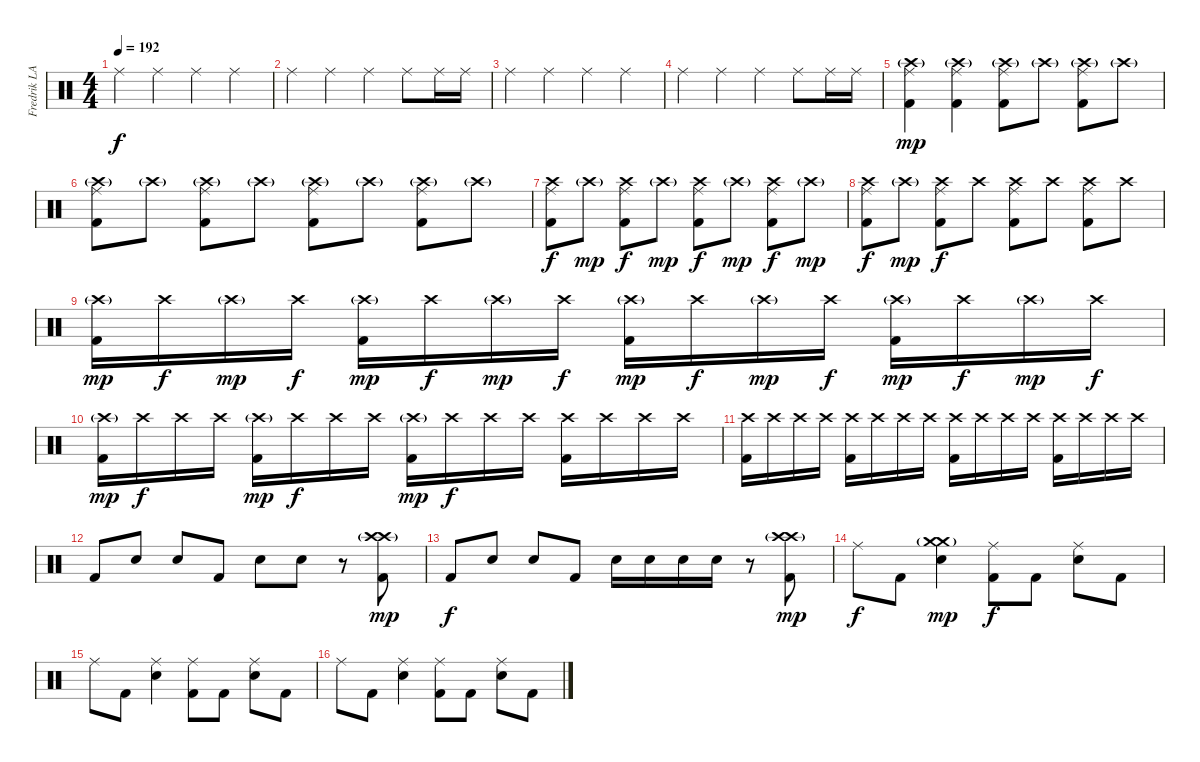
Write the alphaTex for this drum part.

\track ("Fredrik LARZON" "Fredrik LA") {instrument percussion}
\staff {score}
\articulation defaults
\ts (4 4)
\tempo 192
\clef neutral
\ks c "Ride (middle)".4{dy f} "Ride (middle)".4 "Ride (middle)".4 "Ride (middle)".4
|
"Ride (middle)".4 "Ride (middle)".4 "Ride (middle)".4 "Ride (middle)".8 "Ride (middle)".16 "Ride (middle)".16 |
"Ride (middle)".4 "Ride (middle)".4 "Ride (middle)".4 "Ride (middle)".4 |
"Ride (middle)".4 "Ride (middle)".4 "Ride (middle)".4 "Ride (middle)".8 "Ride (middle)".16 "Ride (middle)".16 |
("Ride (middle)" "Crash high (hit)"{g} "Kick (hit) 2").4{dy mp} ("Ride (middle)" "Crash high (hit)"{g} "Kick (hit) 2").4 ("Ride (middle)" "Crash high (hit)"{g} "Kick (hit) 2").8 "Crash high (hit)"{g}.8 ("Ride (middle)" "Crash high (hit)"{g} "Kick (hit) 2").8 "Crash high (hit)"{g}.8 |
("Ride (middle)" "Crash high (hit)"{g} "Kick (hit) 2").8 "Crash high (hit)"{g}.8 ("Ride (middle)" "Crash high (hit)"{g} "Kick (hit) 2").8 "Crash high (hit)"{g}.8 ("Ride (middle)" "Crash high (hit)"{g} "Kick (hit) 2").8 "Crash high (hit)"{g}.8 ("Ride (middle)" "Crash high (hit)"{g} "Kick (hit) 2").8 "Crash high (hit)"{g}.8 |
("Ride (middle)" "Crash high (hit)" "Kick (hit) 2").8{dy f} "Crash high (hit)"{g}.8{dy mp} ("Ride (middle)" "Crash high (hit)" "Kick (hit) 2").8{dy f} "Crash high (hit)"{g}.8{dy mp} ("Ride (middle)" "Crash high (hit)" "Kick (hit) 2").8{dy f} "Crash high (hit)"{g}.8{dy mp} ("Ride (middle)" "Crash high (hit)" "Kick (hit) 2").8{dy f} "Crash high (hit)"{g}.8{dy mp} |
("Ride (middle)" "Crash high (hit)" "Kick (hit) 2").8{dy f} "Crash high (hit)"{g}.8{dy mp} ("Ride (middle)" "Crash high (hit)" "Kick (hit) 2").8{dy f} "Crash high (hit)".8 ("Ride (middle)" "Crash high (hit)" "Kick (hit) 2").8 "Crash high (hit)".8 ("Ride (middle)" "Crash high (hit)" "Kick (hit) 2").8 "Crash high (hit)".8 |
("Crash high (hit)"{g} "Kick (hit) 2").16{dy mp} "Crash high (hit)".16{dy f} "Crash high (hit)"{g}.16{dy mp} "Crash high (hit)".16{dy f} ("Crash high (hit)"{g} "Kick (hit) 2").16{dy mp} "Crash high (hit)".16{dy f} "Crash high (hit)"{g}.16{dy mp} "Crash high (hit)".16{dy f} ("Crash high (hit)"{g} "Kick (hit) 2").16{dy mp} "Crash high (hit)".16{dy f} "Crash high (hit)"{g}.16{dy mp} "Crash high (hit)".16{dy f} ("Crash high (hit)"{g} "Kick (hit) 2").16{dy mp} "Crash high (hit)".16{dy f} "Crash high (hit)"{g}.16{dy mp} "Crash high (hit)".16{dy f} |
("Crash high (hit)"{g} "Kick (hit) 2").16{dy mp} "Crash high (hit)".16{dy f} "Crash high (hit)".16 "Crash high (hit)".16 ("Crash high (hit)"{g} "Kick (hit) 2").16{dy mp} "Crash high (hit)".16{dy f} "Crash high (hit)".16 "Crash high (hit)".16 ("Crash high (hit)"{g} "Kick (hit) 2").16{dy mp} "Crash high (hit)".16{dy f} "Crash high (hit)".16 "Crash high (hit)".16 ("Crash high (hit)" "Kick (hit) 2").16 "Crash high (hit)".16 "Crash high (hit)".16 "Crash high (hit)".16 |
("Crash high (hit)" "Kick (hit) 2").16 "Crash high (hit)".16 "Crash high (hit)".16 "Crash high (hit)".16 ("Crash high (hit)" "Kick (hit) 2").16 "Crash high (hit)".16 "Crash high (hit)".16 "Crash high (hit)".16 ("Crash high (hit)" "Kick (hit) 2").16 "Crash high (hit)".16 "Crash high (hit)".16 "Crash high (hit)".16 ("Crash high (hit)" "Kick (hit) 2").16 "Crash high (hit)".16 "Crash high (hit)".16 "Crash high (hit)".16 |
"Kick (hit) 2".8 "Electric Snare (hit)".8 "Electric Snare (hit)".8 "Kick (hit) 2".8 "Electric Snare (hit)".8 "Electric Snare (hit)".8 r.8 ("Crash high (hit)" "Crash high (hit)"{g} "Kick (hit) 2").8{dy mp} |
"Kick (hit) 2".8{dy f} "Electric Snare (hit)".8 "Electric Snare (hit)".8 "Kick (hit) 2".8 "Electric Snare (hit)".16 "Electric Snare (hit)".16 "Electric Snare (hit)".16 "Electric Snare (hit)".16 r.8 ("Crash high (hit)" "Crash high (hit)"{g} "Kick (hit) 2").8{dy mp} |
"Ride (middle)".8{dy f} "Kick (hit) 2".8 ("Crash medium (hit)" "Electric Snare (hit)" "Crash medium (hit)"{g}).4{dy mp} ("Ride (middle)" "Kick (hit) 2").8{dy f} "Kick (hit) 2".8 ("Ride (middle)" "Electric Snare (hit)").8 "Kick (hit) 2".8 |
"Ride (middle)".8 "Kick (hit) 2".8 ("Ride (middle)" "Electric Snare (hit)").4 ("Ride (middle)" "Kick (hit) 2").8 "Kick (hit) 2".8 ("Ride (middle)" "Electric Snare (hit)").8 "Kick (hit) 2".8 |
"Ride (middle)".8 "Kick (hit) 2".8 ("Ride (middle)" "Electric Snare (hit)").4 ("Ride (middle)" "Kick (hit) 2").8 "Kick (hit) 2".8 ("Ride (middle)" "Electric Snare (hit)").8 "Kick (hit) 2".8
